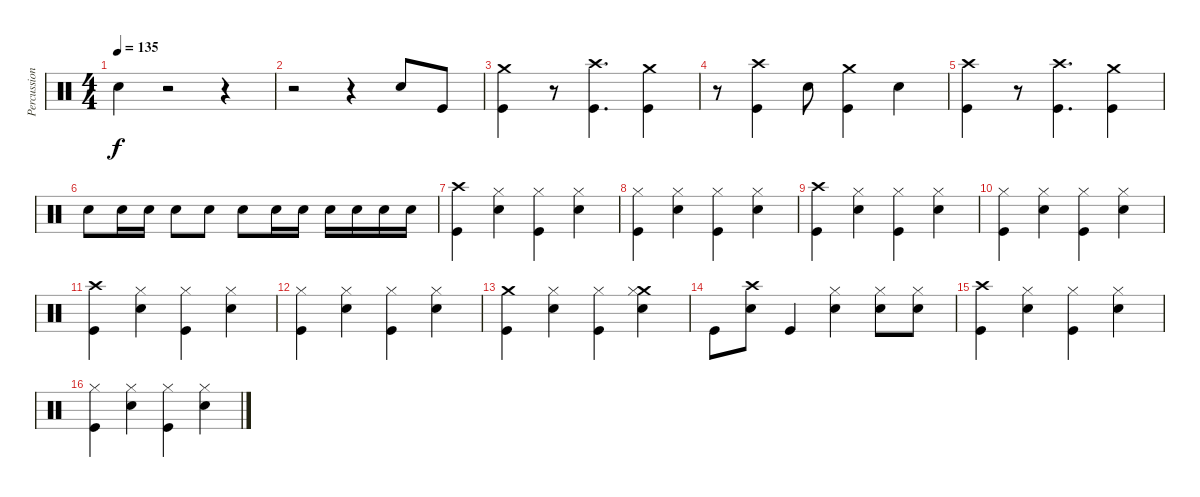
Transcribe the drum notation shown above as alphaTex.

\track ("Percussions" "Percussion") {instrument percussion}
\staff {score}
\articulation defaults
\ts (4 4)
\tempo 135
\clef neutral
\ks c "Snare (hit) 2".4{dy f}
r.2 r.4 |
r.2 r.4 "Snare (hit) 2".8 "Kick (hit)".8 |
("Crash medium (hit)" "Kick (hit)").4 r.8 ("Crash high (hit)" "Kick (hit)").4{d} ("Crash medium (hit)" "Kick (hit)").4 |
r.8 ("Kick (hit)" "Crash high (hit)").4 "Snare (hit) 2".8 ("Crash medium (hit)" "Kick (hit)").4 "Snare (hit) 2".4 |
("Kick (hit)" "Crash high (hit)").4 r.8 ("Crash high (hit)" "Kick (hit)").4{d} ("Crash medium (hit)" "Kick (hit)").4 |
"Snare (hit) 2".8 "Snare (hit) 2".16 "Snare (hit) 2".16 "Snare (hit) 2".8 "Snare (hit) 2".8 "Snare (hit) 2".8 "Snare (hit) 2".16 "Snare (hit) 2".16 "Snare (hit) 2".16 "Snare (hit) 2".16 "Snare (hit) 2".16 "Snare (hit) 2".16 |
("Kick (hit)" "Crash high (hit)").4 ("Hi-Hat (closed)" "Snare (hit) 2").4 ("Hi-Hat (closed)" "Kick (hit)").4 ("Hi-Hat (closed)" "Snare (hit) 2").4 |
("Kick (hit)" "Hi-Hat (closed)").4 ("Snare (hit) 2" "Hi-Hat (closed)").4 ("Kick (hit)" "Hi-Hat (closed)").4 ("Snare (hit) 2" "Hi-Hat (closed)").4 |
("Kick (hit)" "Crash high (hit)").4 ("Snare (hit) 2" "Hi-Hat (closed)").4 ("Kick (hit)" "Hi-Hat (closed)").4 ("Snare (hit) 2" "Hi-Hat (closed)").4 |
("Kick (hit)" "Hi-Hat (closed)").4 ("Snare (hit) 2" "Hi-Hat (closed)").4 ("Kick (hit)" "Hi-Hat (closed)").4 ("Snare (hit) 2" "Hi-Hat (closed)").4 |
("Kick (hit)" "Crash high (hit)").4 ("Snare (hit) 2" "Hi-Hat (closed)").4 ("Kick (hit)" "Hi-Hat (closed)").4 ("Snare (hit) 2" "Hi-Hat (closed)").4 |
("Kick (hit)" "Hi-Hat (closed)").4 ("Snare (hit) 2" "Hi-Hat (closed)").4 ("Kick (hit)" "Hi-Hat (closed)").4 ("Snare (hit) 2" "Hi-Hat (closed)").4 |
("Crash medium (hit)" "Kick (hit)").4 ("Hi-Hat (closed)" "Snare (hit) 2").4 ("Kick (hit)" "Hi-Hat (closed)").4 ("Crash medium (hit)" "Snare (hit) 2" "Hi-Hat (closed)").4 |
"Kick (hit)".8 ("Snare (hit) 2" "Crash high (hit)").8 "Kick (hit)".4 ("Snare (hit) 2" "Hi-Hat (closed)").4 ("Snare (hit) 2" "Hi-Hat (closed)").8 ("Snare (hit) 2" "Hi-Hat (closed)").8 |
("Crash high (hit)" "Kick (hit)").4 ("Snare (hit) 2" "Hi-Hat (closed)").4 ("Kick (hit)" "Hi-Hat (closed)").4 ("Snare (hit) 2" "Hi-Hat (closed)").4 |
("Hi-Hat (closed)" "Kick (hit)").4 ("Snare (hit) 2" "Hi-Hat (closed)").4 ("Kick (hit)" "Hi-Hat (closed)").4 ("Snare (hit) 2" "Hi-Hat (closed)").4
